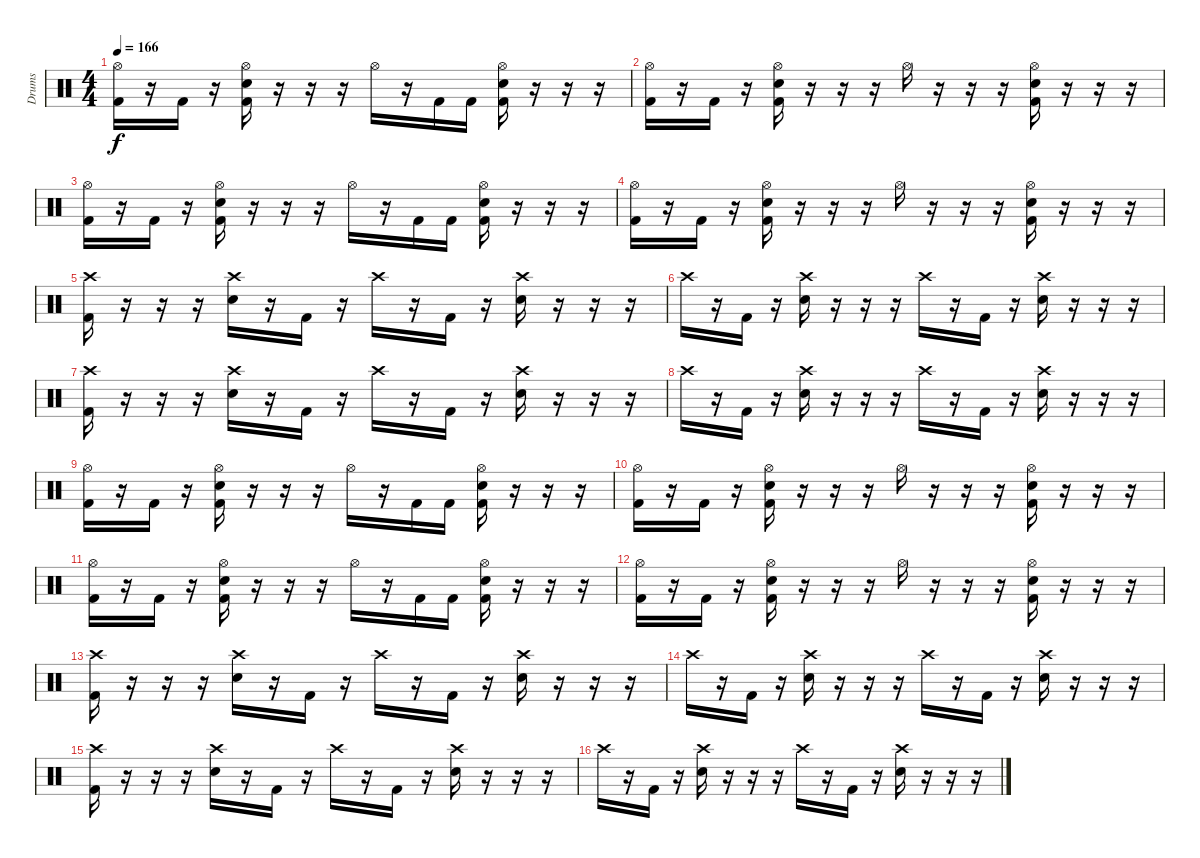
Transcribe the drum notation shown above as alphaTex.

\track ("Drums" "Drums") {instrument percussion}
\staff {score}
\articulation defaults
\ts (4 4)
\tempo 166
\clef neutral
\ks c
("Hi-Hat (open)" "Kick (hit) 2").16{dy f} r.16 "Kick (hit) 2".16 r.16 ("Hi-Hat (open)" "Electric Snare (hit)" "Kick (hit) 2").16 r.16 r.16 r.16 "Hi-Hat (open)".16 r.16 "Kick (hit) 2".16 "Kick (hit) 2".16 ("Hi-Hat (open)" "Electric Snare (hit)" "Kick (hit) 2").16 r.16 r.16 r.16 |
("Hi-Hat (open)" "Kick (hit) 2").16 r.16 "Kick (hit) 2".16 r.16 ("Hi-Hat (open)" "Electric Snare (hit)" "Kick (hit) 2").16 r.16 r.16 r.16 "Hi-Hat (open)".16 r.16 r.16 r.16 ("Hi-Hat (open)" "Electric Snare (hit)" "Kick (hit) 2").16 r.16 r.16 r.16 |
("Hi-Hat (open)" "Kick (hit) 2").16 r.16 "Kick (hit) 2".16 r.16 ("Hi-Hat (open)" "Electric Snare (hit)" "Kick (hit) 2").16 r.16 r.16 r.16 "Hi-Hat (open)".16 r.16 "Kick (hit) 2".16 "Kick (hit) 2".16 ("Hi-Hat (open)" "Electric Snare (hit)" "Kick (hit) 2").16 r.16 r.16 r.16 |
("Hi-Hat (open)" "Kick (hit) 2").16 r.16 "Kick (hit) 2".16 r.16 ("Hi-Hat (open)" "Electric Snare (hit)" "Kick (hit) 2").16 r.16 r.16 r.16 "Hi-Hat (open)".16 r.16 r.16 r.16 ("Hi-Hat (open)" "Electric Snare (hit)" "Kick (hit) 2").16 r.16 r.16 r.16 |
("Crash high (hit)" "Kick (hit) 2").16 r.16 r.16 r.16 ("Crash high (hit)" "Electric Snare (hit)").16 r.16 "Kick (hit) 2".16 r.16 "Crash high (hit)".16 r.16 "Kick (hit) 2".16 r.16 ("Crash high (hit)" "Electric Snare (hit)").16 r.16 r.16 r.16 |
"Crash high (hit)".16 r.16 "Kick (hit) 2".16 r.16 ("Crash high (hit)" "Electric Snare (hit)").16 r.16 r.16 r.16 "Crash high (hit)".16 r.16 "Kick (hit) 2".16 r.16 ("Crash high (hit)" "Electric Snare (hit)").16 r.16 r.16 r.16 |
("Crash high (hit)" "Kick (hit) 2").16 r.16 r.16 r.16 ("Crash high (hit)" "Electric Snare (hit)").16 r.16 "Kick (hit) 2".16 r.16 "Crash high (hit)".16 r.16 "Kick (hit) 2".16 r.16 ("Crash high (hit)" "Electric Snare (hit)").16 r.16 r.16 r.16 |
"Crash high (hit)".16 r.16 "Kick (hit) 2".16 r.16 ("Crash high (hit)" "Electric Snare (hit)").16 r.16 r.16 r.16 "Crash high (hit)".16 r.16 "Kick (hit) 2".16 r.16 ("Crash high (hit)" "Electric Snare (hit)").16 r.16 r.16 r.16 |
("Hi-Hat (open)" "Kick (hit) 2").16 r.16 "Kick (hit) 2".16 r.16 ("Hi-Hat (open)" "Electric Snare (hit)" "Kick (hit) 2").16 r.16 r.16 r.16 "Hi-Hat (open)".16 r.16 "Kick (hit) 2".16 "Kick (hit) 2".16 ("Hi-Hat (open)" "Electric Snare (hit)" "Kick (hit) 2").16 r.16 r.16 r.16 |
("Hi-Hat (open)" "Kick (hit) 2").16 r.16 "Kick (hit) 2".16 r.16 ("Hi-Hat (open)" "Electric Snare (hit)" "Kick (hit) 2").16 r.16 r.16 r.16 "Hi-Hat (open)".16 r.16 r.16 r.16 ("Hi-Hat (open)" "Electric Snare (hit)" "Kick (hit) 2").16 r.16 r.16 r.16 |
("Hi-Hat (open)" "Kick (hit) 2").16 r.16 "Kick (hit) 2".16 r.16 ("Hi-Hat (open)" "Electric Snare (hit)" "Kick (hit) 2").16 r.16 r.16 r.16 "Hi-Hat (open)".16 r.16 "Kick (hit) 2".16 "Kick (hit) 2".16 ("Hi-Hat (open)" "Electric Snare (hit)" "Kick (hit) 2").16 r.16 r.16 r.16 |
("Hi-Hat (open)" "Kick (hit) 2").16 r.16 "Kick (hit) 2".16 r.16 ("Hi-Hat (open)" "Electric Snare (hit)" "Kick (hit) 2").16 r.16 r.16 r.16 "Hi-Hat (open)".16 r.16 r.16 r.16 ("Hi-Hat (open)" "Electric Snare (hit)" "Kick (hit) 2").16 r.16 r.16 r.16 |
("Crash high (hit)" "Kick (hit) 2").16 r.16 r.16 r.16 ("Crash high (hit)" "Electric Snare (hit)").16 r.16 "Kick (hit) 2".16 r.16 "Crash high (hit)".16 r.16 "Kick (hit) 2".16 r.16 ("Crash high (hit)" "Electric Snare (hit)").16 r.16 r.16 r.16 |
"Crash high (hit)".16 r.16 "Kick (hit) 2".16 r.16 ("Crash high (hit)" "Electric Snare (hit)").16 r.16 r.16 r.16 "Crash high (hit)".16 r.16 "Kick (hit) 2".16 r.16 ("Crash high (hit)" "Electric Snare (hit)").16 r.16 r.16 r.16 |
("Crash high (hit)" "Kick (hit) 2").16 r.16 r.16 r.16 ("Crash high (hit)" "Electric Snare (hit)").16 r.16 "Kick (hit) 2".16 r.16 "Crash high (hit)".16 r.16 "Kick (hit) 2".16 r.16 ("Crash high (hit)" "Electric Snare (hit)").16 r.16 r.16 r.16 |
"Crash high (hit)".16 r.16 "Kick (hit) 2".16 r.16 ("Crash high (hit)" "Electric Snare (hit)").16 r.16 r.16 r.16 "Crash high (hit)".16 r.16 "Kick (hit) 2".16 r.16 ("Crash high (hit)" "Electric Snare (hit)").16 r.16 r.16 r.16
